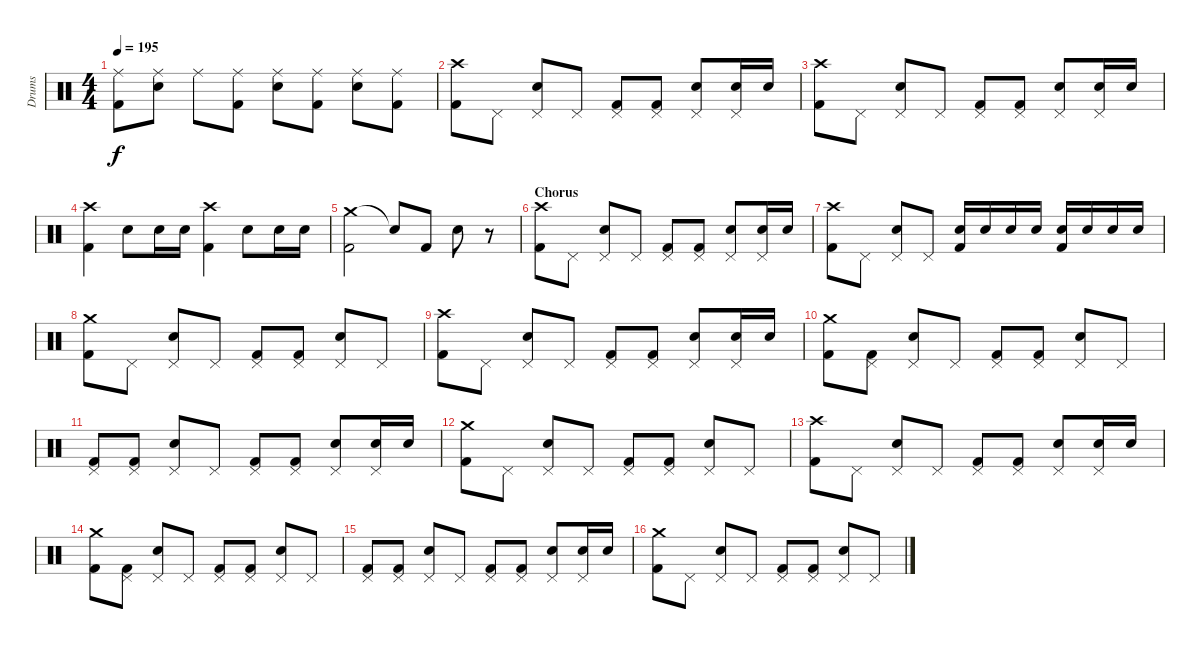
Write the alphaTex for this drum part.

\track ("Drums" "Drums") {instrument percussion}
\staff {score}
\articulation defaults
\ts (4 4)
\tempo 195
\clef neutral
\ks c
("Ride (middle)" "Kick (hit) 2").8{dy f} ("Ride (middle)" "Electric Snare (hit)").8 "Ride (middle)".8 ("Ride (middle)" "Kick (hit) 2").8 ("Ride (middle)" "Electric Snare (hit)").8 ("Ride (middle)" "Kick (hit) 2").8 ("Ride (middle)" "Electric Snare (hit)").8 ("Ride (middle)" "Kick (hit) 2").8 |
("Crash high (hit)" "Kick (hit) 2").8 "Pedal Hi-Hat (hit)".8 ("Pedal Hi-Hat (hit)" "Electric Snare (hit)").8 "Pedal Hi-Hat (hit)".8 ("Pedal Hi-Hat (hit)" "Kick (hit) 2").8 ("Pedal Hi-Hat (hit)" "Kick (hit) 2").8 ("Pedal Hi-Hat (hit)" "Electric Snare (hit)").8 ("Pedal Hi-Hat (hit)" "Electric Snare (hit)").16 "Electric Snare (hit)".16 |
("Crash high (hit)" "Kick (hit) 2").8 "Pedal Hi-Hat (hit)".8 ("Pedal Hi-Hat (hit)" "Electric Snare (hit)").8 "Pedal Hi-Hat (hit)".8 ("Pedal Hi-Hat (hit)" "Kick (hit) 2").8 ("Pedal Hi-Hat (hit)" "Kick (hit) 2").8 ("Pedal Hi-Hat (hit)" "Electric Snare (hit)").8 ("Pedal Hi-Hat (hit)" "Electric Snare (hit)").16 "Electric Snare (hit)".16 |
("Crash high (hit)" "Kick (hit) 2").4 "Electric Snare (hit)".8 "Electric Snare (hit)".16 "Electric Snare (hit)".16 ("Crash high (hit)" "Kick (hit) 2").4 "Electric Snare (hit)".8 "Electric Snare (hit)".16 "Electric Snare (hit)".16 |
("Crash medium (hit)" "Kick (hit) 2").2 "Snare (hit)"{t}.8 "Kick (hit) 2".8 "Electric Snare (hit)".8 r.8 |
\section ("" "Chorus")
("Crash high (hit)" "Kick (hit) 2").8 "Pedal Hi-Hat (hit)".8 ("Pedal Hi-Hat (hit)" "Electric Snare (hit)").8 "Pedal Hi-Hat (hit)".8 ("Pedal Hi-Hat (hit)" "Kick (hit) 2").8 ("Pedal Hi-Hat (hit)" "Kick (hit) 2").8 ("Pedal Hi-Hat (hit)" "Electric Snare (hit)").8 ("Pedal Hi-Hat (hit)" "Electric Snare (hit)").16 "Electric Snare (hit)".16 |
("Crash high (hit)" "Kick (hit) 2").8 "Pedal Hi-Hat (hit)".8 ("Pedal Hi-Hat (hit)" "Electric Snare (hit)").8 "Pedal Hi-Hat (hit)".8 ("Electric Snare (hit)" "Kick (hit) 2").16 "Electric Snare (hit)".16 "Electric Snare (hit)".16 "Electric Snare (hit)".16 ("Electric Snare (hit)" "Kick (hit) 2").16 "Electric Snare (hit)".16 "Electric Snare (hit)".16 "Electric Snare (hit)".16 |
("Crash medium (hit)" "Kick (hit) 2").8 "Pedal Hi-Hat (hit)".8 ("Pedal Hi-Hat (hit)" "Electric Snare (hit)").8 "Pedal Hi-Hat (hit)".8 ("Pedal Hi-Hat (hit)" "Kick (hit) 2").8 ("Pedal Hi-Hat (hit)" "Kick (hit) 2").8 ("Pedal Hi-Hat (hit)" "Electric Snare (hit)").8 "Pedal Hi-Hat (hit)".8 |
("Crash high (hit)" "Kick (hit) 2").8 "Pedal Hi-Hat (hit)".8 ("Pedal Hi-Hat (hit)" "Electric Snare (hit)").8 "Pedal Hi-Hat (hit)".8 ("Pedal Hi-Hat (hit)" "Kick (hit) 2").8 ("Pedal Hi-Hat (hit)" "Kick (hit) 2").8 ("Pedal Hi-Hat (hit)" "Electric Snare (hit)").8 ("Pedal Hi-Hat (hit)" "Electric Snare (hit)").16 "Electric Snare (hit)".16 |
("Crash medium (hit)" "Kick (hit) 2").8 ("Pedal Hi-Hat (hit)" "Kick (hit) 2").8 ("Pedal Hi-Hat (hit)" "Electric Snare (hit)").8 "Pedal Hi-Hat (hit)".8 ("Pedal Hi-Hat (hit)" "Kick (hit) 2").8 ("Pedal Hi-Hat (hit)" "Kick (hit) 2").8 ("Pedal Hi-Hat (hit)" "Electric Snare (hit)").8 "Pedal Hi-Hat (hit)".8 |
("Pedal Hi-Hat (hit)" "Kick (hit) 2").8 ("Pedal Hi-Hat (hit)" "Kick (hit) 2").8 ("Pedal Hi-Hat (hit)" "Electric Snare (hit)").8 "Pedal Hi-Hat (hit)".8 ("Pedal Hi-Hat (hit)" "Kick (hit) 2").8 ("Pedal Hi-Hat (hit)" "Kick (hit) 2").8 ("Pedal Hi-Hat (hit)" "Electric Snare (hit)").8 ("Pedal Hi-Hat (hit)" "Electric Snare (hit)").16 "Electric Snare (hit)".16 |
("Crash medium (hit)" "Kick (hit) 2").8 "Pedal Hi-Hat (hit)".8 ("Pedal Hi-Hat (hit)" "Electric Snare (hit)").8 "Pedal Hi-Hat (hit)".8 ("Pedal Hi-Hat (hit)" "Kick (hit) 2").8 ("Pedal Hi-Hat (hit)" "Kick (hit) 2").8 ("Pedal Hi-Hat (hit)" "Electric Snare (hit)").8 "Pedal Hi-Hat (hit)".8 |
("Crash high (hit)" "Kick (hit) 2").8 "Pedal Hi-Hat (hit)".8 ("Pedal Hi-Hat (hit)" "Electric Snare (hit)").8 "Pedal Hi-Hat (hit)".8 ("Pedal Hi-Hat (hit)" "Kick (hit) 2").8 ("Pedal Hi-Hat (hit)" "Kick (hit) 2").8 ("Pedal Hi-Hat (hit)" "Electric Snare (hit)").8 ("Pedal Hi-Hat (hit)" "Electric Snare (hit)").16 "Electric Snare (hit)".16 |
("Crash medium (hit)" "Kick (hit) 2").8 ("Pedal Hi-Hat (hit)" "Kick (hit) 2").8 ("Pedal Hi-Hat (hit)" "Electric Snare (hit)").8 "Pedal Hi-Hat (hit)".8 ("Pedal Hi-Hat (hit)" "Kick (hit) 2").8 ("Pedal Hi-Hat (hit)" "Kick (hit) 2").8 ("Pedal Hi-Hat (hit)" "Electric Snare (hit)").8 "Pedal Hi-Hat (hit)".8 |
("Pedal Hi-Hat (hit)" "Kick (hit) 2").8 ("Pedal Hi-Hat (hit)" "Kick (hit) 2").8 ("Pedal Hi-Hat (hit)" "Electric Snare (hit)").8 "Pedal Hi-Hat (hit)".8 ("Pedal Hi-Hat (hit)" "Kick (hit) 2").8 ("Pedal Hi-Hat (hit)" "Kick (hit) 2").8 ("Pedal Hi-Hat (hit)" "Electric Snare (hit)").8 ("Pedal Hi-Hat (hit)" "Electric Snare (hit)").16 "Electric Snare (hit)".16 |
("Crash medium (hit)" "Kick (hit) 2").8 "Pedal Hi-Hat (hit)".8 ("Pedal Hi-Hat (hit)" "Electric Snare (hit)").8 "Pedal Hi-Hat (hit)".8 ("Pedal Hi-Hat (hit)" "Kick (hit) 2").8 ("Pedal Hi-Hat (hit)" "Kick (hit) 2").8 ("Pedal Hi-Hat (hit)" "Electric Snare (hit)").8 "Pedal Hi-Hat (hit)".8
